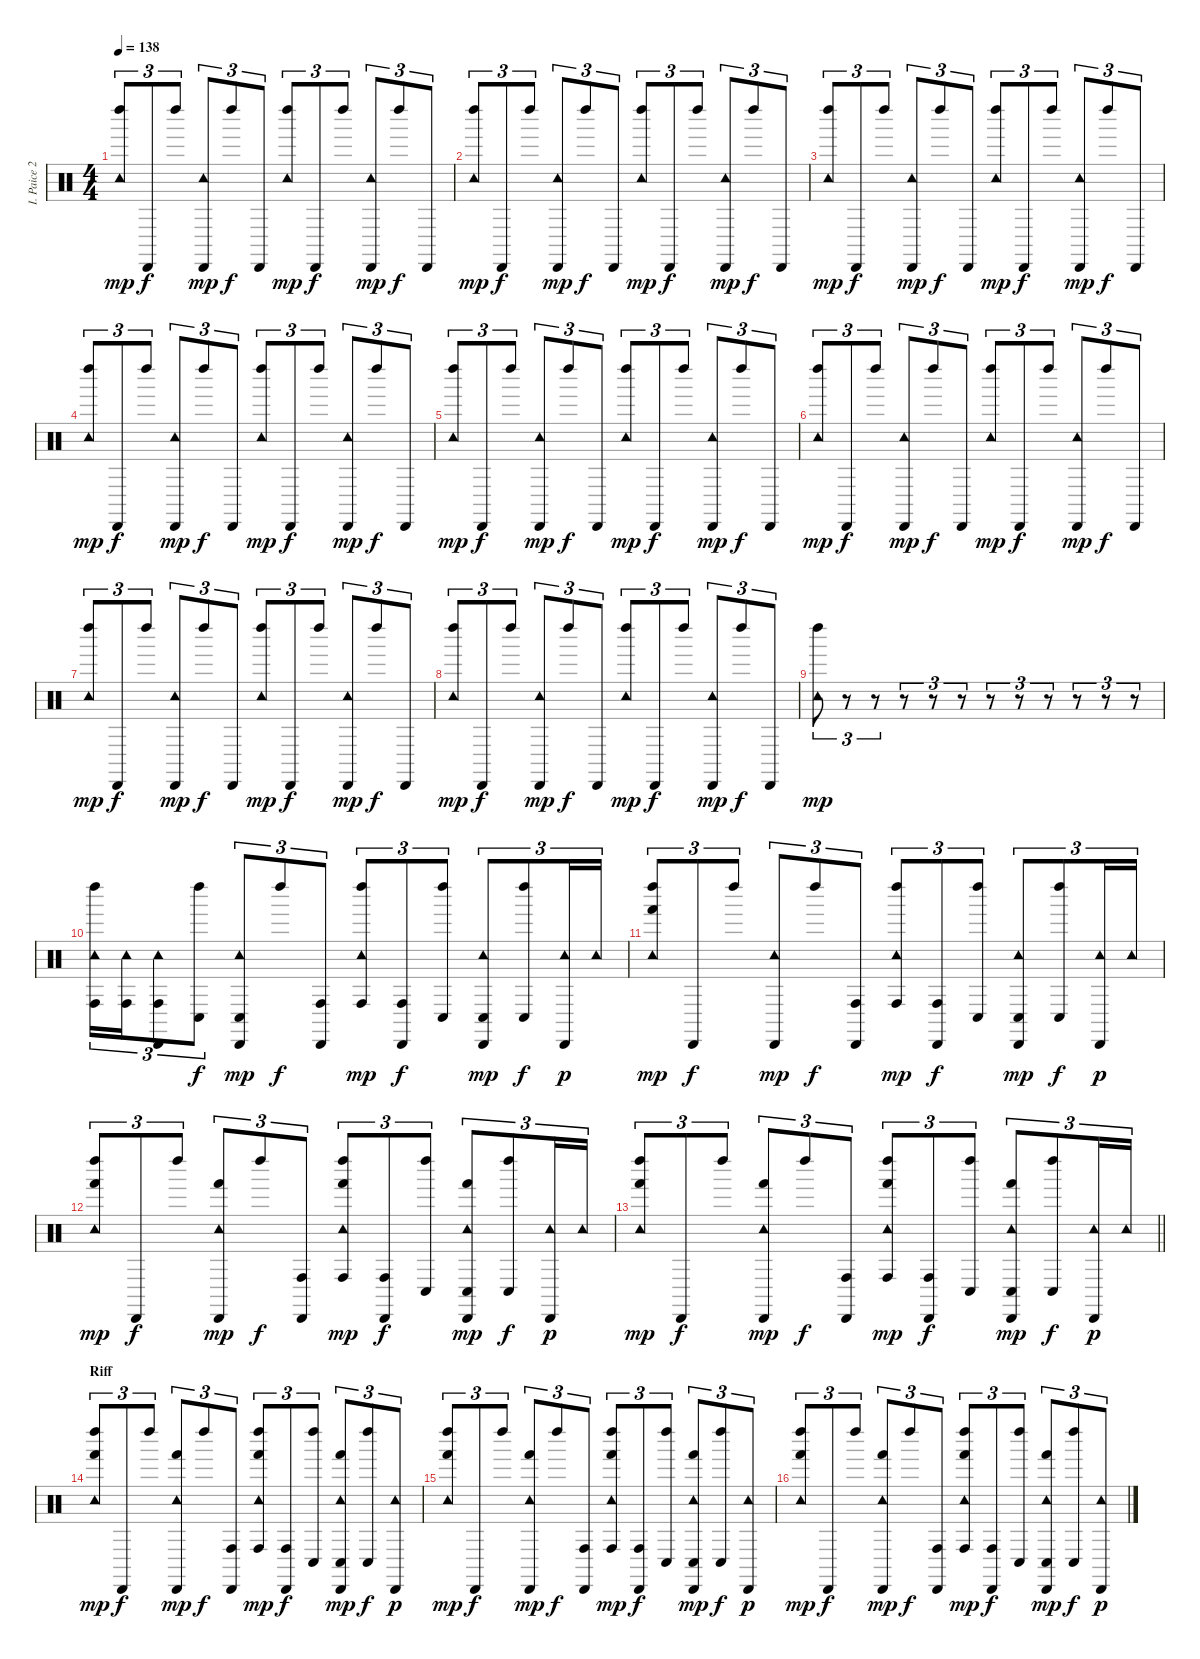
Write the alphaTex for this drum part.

\track ("I. Paice 2" "I. Paice 2") {instrument percussion}
\staff {score}
\articulation defaults
\ts (4 4)
\tempo 138
\clef neutral
\ks c
("Tambourine (hit)" "Left Maraca (hit)").8{tu (3 2) dy mp} "Cabasa (hit)".8{tu (3 2) dy f} "Left Maraca (hit)".8{tu (3 2)} ("Tambourine (hit)" "Cabasa (hit)").8{tu (3 2) dy mp} "Left Maraca (hit)".8{tu (3 2) dy f} "Cabasa (hit)".8{tu (3 2)} ("Tambourine (hit)" "Left Maraca (hit)").8{tu (3 2) dy mp} "Cabasa (hit)".8{tu (3 2) dy f} "Left Maraca (hit)".8{tu (3 2)} ("Tambourine (hit)" "Cabasa (hit)").8{tu (3 2) dy mp} "Left Maraca (hit)".8{tu (3 2) dy f} "Cabasa (hit)".8{tu (3 2)} |
("Tambourine (hit)" "Left Maraca (hit)").8{tu (3 2) dy mp} "Cabasa (hit)".8{tu (3 2) dy f} "Left Maraca (hit)".8{tu (3 2)} ("Tambourine (hit)" "Cabasa (hit)").8{tu (3 2) dy mp} "Left Maraca (hit)".8{tu (3 2) dy f} "Cabasa (hit)".8{tu (3 2)} ("Tambourine (hit)" "Left Maraca (hit)").8{tu (3 2) dy mp} "Cabasa (hit)".8{tu (3 2) dy f} "Left Maraca (hit)".8{tu (3 2)} ("Tambourine (hit)" "Cabasa (hit)").8{tu (3 2) dy mp} "Left Maraca (hit)".8{tu (3 2) dy f} "Cabasa (hit)".8{tu (3 2)} |
("Tambourine (hit)" "Left Maraca (hit)").8{tu (3 2) dy mp} "Cabasa (hit)".8{tu (3 2) dy f} "Left Maraca (hit)".8{tu (3 2)} ("Tambourine (hit)" "Cabasa (hit)").8{tu (3 2) dy mp} "Left Maraca (hit)".8{tu (3 2) dy f} "Cabasa (hit)".8{tu (3 2)} ("Tambourine (hit)" "Left Maraca (hit)").8{tu (3 2) dy mp} "Cabasa (hit)".8{tu (3 2) dy f} "Left Maraca (hit)".8{tu (3 2)} ("Tambourine (hit)" "Cabasa (hit)").8{tu (3 2) dy mp} "Left Maraca (hit)".8{tu (3 2) dy f} "Cabasa (hit)".8{tu (3 2)} |
("Tambourine (hit)" "Left Maraca (hit)").8{tu (3 2) dy mp} "Cabasa (hit)".8{tu (3 2) dy f} "Left Maraca (hit)".8{tu (3 2)} ("Tambourine (hit)" "Cabasa (hit)").8{tu (3 2) dy mp} "Left Maraca (hit)".8{tu (3 2) dy f} "Cabasa (hit)".8{tu (3 2)} ("Tambourine (hit)" "Left Maraca (hit)").8{tu (3 2) dy mp} "Cabasa (hit)".8{tu (3 2) dy f} "Left Maraca (hit)".8{tu (3 2)} ("Tambourine (hit)" "Cabasa (hit)").8{tu (3 2) dy mp} "Left Maraca (hit)".8{tu (3 2) dy f} "Cabasa (hit)".8{tu (3 2)} |
("Tambourine (hit)" "Left Maraca (hit)").8{tu (3 2) dy mp} "Cabasa (hit)".8{tu (3 2) dy f} "Left Maraca (hit)".8{tu (3 2)} ("Tambourine (hit)" "Cabasa (hit)").8{tu (3 2) dy mp} "Left Maraca (hit)".8{tu (3 2) dy f} "Cabasa (hit)".8{tu (3 2)} ("Tambourine (hit)" "Left Maraca (hit)").8{tu (3 2) dy mp} "Cabasa (hit)".8{tu (3 2) dy f} "Left Maraca (hit)".8{tu (3 2)} ("Tambourine (hit)" "Cabasa (hit)").8{tu (3 2) dy mp} "Left Maraca (hit)".8{tu (3 2) dy f} "Cabasa (hit)".8{tu (3 2)} |
("Tambourine (hit)" "Left Maraca (hit)").8{tu (3 2) dy mp} "Cabasa (hit)".8{tu (3 2) dy f} "Left Maraca (hit)".8{tu (3 2)} ("Tambourine (hit)" "Cabasa (hit)").8{tu (3 2) dy mp} "Left Maraca (hit)".8{tu (3 2) dy f} "Cabasa (hit)".8{tu (3 2)} ("Tambourine (hit)" "Left Maraca (hit)").8{tu (3 2) dy mp} "Cabasa (hit)".8{tu (3 2) dy f} "Left Maraca (hit)".8{tu (3 2)} ("Tambourine (hit)" "Cabasa (hit)").8{tu (3 2) dy mp} "Left Maraca (hit)".8{tu (3 2) dy f} "Cabasa (hit)".8{tu (3 2)} |
("Tambourine (hit)" "Left Maraca (hit)").8{tu (3 2) dy mp} "Cabasa (hit)".8{tu (3 2) dy f} "Left Maraca (hit)".8{tu (3 2)} ("Tambourine (hit)" "Cabasa (hit)").8{tu (3 2) dy mp} "Left Maraca (hit)".8{tu (3 2) dy f} "Cabasa (hit)".8{tu (3 2)} ("Tambourine (hit)" "Left Maraca (hit)").8{tu (3 2) dy mp} "Cabasa (hit)".8{tu (3 2) dy f} "Left Maraca (hit)".8{tu (3 2)} ("Tambourine (hit)" "Cabasa (hit)").8{tu (3 2) dy mp} "Left Maraca (hit)".8{tu (3 2) dy f} "Cabasa (hit)".8{tu (3 2)} |
("Tambourine (hit)" "Left Maraca (hit)").8{tu (3 2) dy mp} "Cabasa (hit)".8{tu (3 2) dy f} "Left Maraca (hit)".8{tu (3 2)} ("Tambourine (hit)" "Cabasa (hit)").8{tu (3 2) dy mp} "Left Maraca (hit)".8{tu (3 2) dy f} "Cabasa (hit)".8{tu (3 2)} ("Tambourine (hit)" "Left Maraca (hit)").8{tu (3 2) dy mp} "Cabasa (hit)".8{tu (3 2) dy f} "Left Maraca (hit)".8{tu (3 2)} ("Tambourine (hit)" "Cabasa (hit)").8{tu (3 2) dy mp} "Left Maraca (hit)".8{tu (3 2) dy f} "Cabasa (hit)".8{tu (3 2)} |
("Tambourine (hit)" "Left Maraca (hit)").8{tu (3 2) dy mp} r.8{tu (3 2)} r.8{tu (3 2)} r.8{tu (3 2)} r.8{tu (3 2)} r.8{tu (3 2)} r.8{tu (3 2)} r.8{tu (3 2)} r.8{tu (3 2)} r.8{tu (3 2)} r.8{tu (3 2)} r.8{tu (3 2)} |
("Tambourine (hit)" "Left Maraca (hit)" "Conga high (hit)").16{tu (3 2)} ("Tambourine (hit)" "Conga high (hit)").16{tu (3 2)} ("Tambourine (hit)" "Cabasa (hit)" "Conga high (hit)").8{tu (3 2)} ("Left Maraca (hit)" "Conga low (hit)").8{tu (3 2) dy f} ("Tambourine (hit)" "Cabasa (hit)" "Conga low (hit)").8{tu (3 2) dy mp} "Left Maraca (hit)".8{tu (3 2) dy f} ("Cabasa (hit)" "Conga high (hit)").8{tu (3 2)} ("Tambourine (hit)" "Left Maraca (hit)" "Conga high (hit)").8{tu (3 2) dy mp} ("Cabasa (hit)" "Conga high (hit)").8{tu (3 2) dy f} ("Left Maraca (hit)" "Conga low (hit)").8{tu (3 2)} ("Tambourine (hit)" "Cabasa (hit)" "Conga low (hit)").8{tu (3 2) dy mp} ("Left Maraca (hit)" "Conga low (hit)").8{tu (3 2) dy f} ("Tambourine (hit)" "Cabasa (hit)").16{tu (3 2) dy p} "Tambourine (hit)".16{tu (3 2)} |
("Tambourine (hit)" "Left Maraca (hit)" "Hand (hit)").8{tu (3 2) dy mp} "Cabasa (hit)".8{tu (3 2) dy f} "Left Maraca (hit)".8{tu (3 2)} ("Tambourine (hit)" "Cabasa (hit)").8{tu (3 2) dy mp} "Left Maraca (hit)".8{tu (3 2) dy f} ("Cabasa (hit)" "Conga high (hit)").8{tu (3 2)} ("Tambourine (hit)" "Left Maraca (hit)" "Conga high (hit)").8{tu (3 2) dy mp} ("Cabasa (hit)" "Conga high (hit)").8{tu (3 2) dy f} ("Left Maraca (hit)" "Conga low (hit)").8{tu (3 2)} ("Tambourine (hit)" "Cabasa (hit)" "Conga low (hit)").8{tu (3 2) dy mp} ("Left Maraca (hit)" "Conga low (hit)").8{tu (3 2) dy f} ("Tambourine (hit)" "Cabasa (hit)").16{tu (3 2) dy p} "Tambourine (hit)".16{tu (3 2)} |
("Tambourine (hit)" "Left Maraca (hit)" "Hand (hit)").8{tu (3 2) dy mp} "Cabasa (hit)".8{tu (3 2) dy f} "Left Maraca (hit)".8{tu (3 2)} ("Tambourine (hit)" "Cabasa (hit)" "Hand (hit)").8{tu (3 2) dy mp} "Left Maraca (hit)".8{tu (3 2) dy f} ("Cabasa (hit)" "Conga high (hit)").8{tu (3 2)} ("Tambourine (hit)" "Left Maraca (hit)" "Hand (hit)" "Conga high (hit)").8{tu (3 2) dy mp} ("Cabasa (hit)" "Conga high (hit)").8{tu (3 2) dy f} ("Left Maraca (hit)" "Conga low (hit)").8{tu (3 2)} ("Tambourine (hit)" "Cabasa (hit)" "Hand (hit)" "Conga low (hit)").8{tu (3 2) dy mp} ("Left Maraca (hit)" "Conga low (hit)").8{tu (3 2) dy f} ("Tambourine (hit)" "Cabasa (hit)").16{tu (3 2) dy p} "Tambourine (hit)".16{tu (3 2)} |
\barLineRight lightlight
("Tambourine (hit)" "Left Maraca (hit)" "Hand (hit)").8{tu (3 2) dy mp} "Cabasa (hit)".8{tu (3 2) dy f} "Left Maraca (hit)".8{tu (3 2)} ("Tambourine (hit)" "Cabasa (hit)" "Hand (hit)").8{tu (3 2) dy mp} "Left Maraca (hit)".8{tu (3 2) dy f} ("Cabasa (hit)" "Conga high (hit)").8{tu (3 2)} ("Tambourine (hit)" "Left Maraca (hit)" "Hand (hit)" "Conga high (hit)").8{tu (3 2) dy mp} ("Cabasa (hit)" "Conga high (hit)").8{tu (3 2) dy f} ("Left Maraca (hit)" "Conga low (hit)").8{tu (3 2)} ("Tambourine (hit)" "Cabasa (hit)" "Hand (hit)" "Conga low (hit)").8{tu (3 2) dy mp} ("Left Maraca (hit)" "Conga low (hit)").8{tu (3 2) dy f} ("Tambourine (hit)" "Cabasa (hit)").16{tu (3 2) dy p} "Tambourine (hit)".16{tu (3 2)} |
\section ("" "Riff")
("Tambourine (hit)" "Left Maraca (hit)" "Hand (hit)").8{tu (3 2) dy mp} "Cabasa (hit)".8{tu (3 2) dy f} "Left Maraca (hit)".8{tu (3 2)} ("Tambourine (hit)" "Cabasa (hit)" "Hand (hit)").8{tu (3 2) dy mp} "Left Maraca (hit)".8{tu (3 2) dy f} ("Cabasa (hit)" "Conga high (hit)").8{tu (3 2)} ("Tambourine (hit)" "Left Maraca (hit)" "Hand (hit)" "Conga high (hit)").8{tu (3 2) dy mp} ("Cabasa (hit)" "Conga high (hit)").8{tu (3 2) dy f} ("Left Maraca (hit)" "Conga low (hit)").8{tu (3 2)} ("Tambourine (hit)" "Cabasa (hit)" "Hand (hit)" "Conga low (hit)").8{tu (3 2) dy mp} ("Left Maraca (hit)" "Conga low (hit)").8{tu (3 2) dy f} ("Tambourine (hit)" "Cabasa (hit)").8{tu (3 2) dy p} |
("Tambourine (hit)" "Left Maraca (hit)" "Hand (hit)").8{tu (3 2) dy mp} "Cabasa (hit)".8{tu (3 2) dy f} "Left Maraca (hit)".8{tu (3 2)} ("Tambourine (hit)" "Cabasa (hit)" "Hand (hit)").8{tu (3 2) dy mp} "Left Maraca (hit)".8{tu (3 2) dy f} ("Cabasa (hit)" "Conga high (hit)").8{tu (3 2)} ("Tambourine (hit)" "Left Maraca (hit)" "Hand (hit)" "Conga high (hit)").8{tu (3 2) dy mp} ("Cabasa (hit)" "Conga high (hit)").8{tu (3 2) dy f} ("Left Maraca (hit)" "Conga low (hit)").8{tu (3 2)} ("Tambourine (hit)" "Cabasa (hit)" "Hand (hit)" "Conga low (hit)").8{tu (3 2) dy mp} ("Left Maraca (hit)" "Conga low (hit)").8{tu (3 2) dy f} ("Tambourine (hit)" "Cabasa (hit)").8{tu (3 2) dy p} |
("Tambourine (hit)" "Left Maraca (hit)" "Hand (hit)").8{tu (3 2) dy mp} "Cabasa (hit)".8{tu (3 2) dy f} "Left Maraca (hit)".8{tu (3 2)} ("Tambourine (hit)" "Cabasa (hit)" "Hand (hit)").8{tu (3 2) dy mp} "Left Maraca (hit)".8{tu (3 2) dy f} ("Cabasa (hit)" "Conga high (hit)").8{tu (3 2)} ("Tambourine (hit)" "Left Maraca (hit)" "Hand (hit)" "Conga high (hit)").8{tu (3 2) dy mp} ("Cabasa (hit)" "Conga high (hit)").8{tu (3 2) dy f} ("Left Maraca (hit)" "Conga low (hit)").8{tu (3 2)} ("Tambourine (hit)" "Cabasa (hit)" "Hand (hit)" "Conga low (hit)").8{tu (3 2) dy mp} ("Left Maraca (hit)" "Conga low (hit)").8{tu (3 2) dy f} ("Tambourine (hit)" "Cabasa (hit)").8{tu (3 2) dy p}
